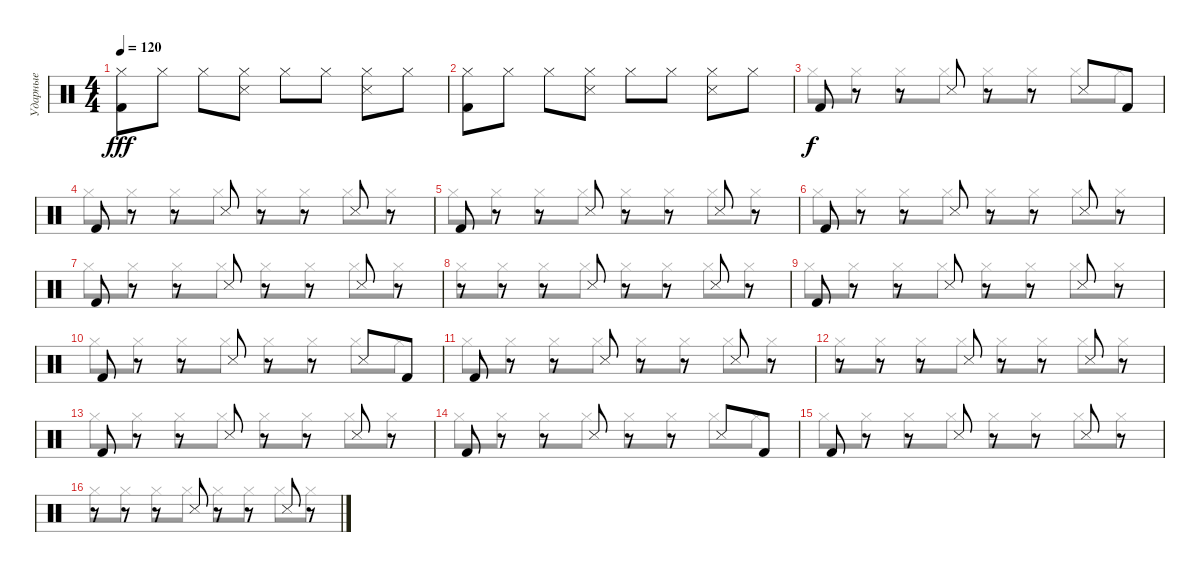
\track ("Ударные" "Ударные") {instrument percussion}
\staff {score}
\articulation defaults
\voice
\ts (4 4)
\tempo 120
\clef neutral
\ks c
("Hi-Hat (closed)" "Kick (hit) 2").8{dy fff} "Hi-Hat (closed)".8 "Hi-Hat (closed)".8 ("Hi-Hat (closed)" "Snare (side stick) 3").8 "Hi-Hat (closed)".8 "Hi-Hat (closed)".8 ("Hi-Hat (closed)" "Snare (side stick) 3").8 "Hi-Hat (closed)".8 |
("Hi-Hat (closed)" "Kick (hit) 2").8 "Hi-Hat (closed)".8 "Hi-Hat (closed)".8 ("Hi-Hat (closed)" "Snare (side stick) 3").8 "Hi-Hat (closed)".8 "Hi-Hat (closed)".8 ("Hi-Hat (closed)" "Snare (side stick) 3").8 "Hi-Hat (closed)".8 |
"Kick (hit) 2".8{dy f} r.8 r.8 "Snare (side stick) 3".8 r.8 r.8 "Snare (side stick) 3".8 "Kick (hit) 2".8 |
"Kick (hit) 2".8 r.8 r.8 "Snare (side stick) 3".8 r.8 r.8 "Snare (side stick) 3".8 r.8 |
"Kick (hit) 2".8 r.8 r.8 "Snare (side stick) 3".8 r.8 r.8 "Snare (side stick) 3".8 r.8 |
"Kick (hit) 2".8 r.8 r.8 "Snare (side stick) 3".8 r.8 r.8 "Snare (side stick) 3".8 r.8 |
"Kick (hit) 2".8 r.8 r.8 "Snare (side stick) 3".8 r.8 r.8 "Snare (side stick) 3".8 r.8 |
r.8 r.8 r.8 "Snare (side stick) 3".8 r.8 r.8 "Snare (side stick) 3".8 r.8 |
"Kick (hit) 2".8 r.8 r.8 "Snare (side stick) 3".8 r.8 r.8 "Snare (side stick) 3".8 r.8 |
"Kick (hit) 2".8 r.8 r.8 "Snare (side stick) 3".8 r.8 r.8 "Snare (side stick) 3".8 "Kick (hit) 2".8 |
"Kick (hit) 2".8 r.8 r.8 "Snare (side stick) 3".8 r.8 r.8 "Snare (side stick) 3".8 r.8 |
r.8 r.8 r.8 "Snare (side stick) 3".8 r.8 r.8 "Snare (side stick) 3".8 r.8 |
"Kick (hit) 2".8 r.8 r.8 "Snare (side stick) 3".8 r.8 r.8 "Snare (side stick) 3".8 r.8 |
"Kick (hit) 2".8 r.8 r.8 "Snare (side stick) 3".8 r.8 r.8 "Snare (side stick) 3".8 "Kick (hit) 2".8 |
"Kick (hit) 2".8 r.8 r.8 "Snare (side stick) 3".8 r.8 r.8 "Snare (side stick) 3".8 r.8 |
r.8 r.8 r.8 "Snare (side stick) 3".8 r.8 r.8 "Snare (side stick) 3".8 r.8
\voice
\clef neutral
\ottava regular
\simile none
\ks c
|
|
"Hi-Hat (closed)".8 "Hi-Hat (closed)".8 "Hi-Hat (closed)".8 "Hi-Hat (closed)".8 "Hi-Hat (closed)".8 "Hi-Hat (closed)".8 "Hi-Hat (closed)".8 "Hi-Hat (closed)".8 |
"Hi-Hat (closed)".8 "Hi-Hat (closed)".8 "Hi-Hat (closed)".8 "Hi-Hat (closed)".8 "Hi-Hat (closed)".8 "Hi-Hat (closed)".8 "Hi-Hat (closed)".8 "Hi-Hat (closed)".8 |
"Hi-Hat (closed)".8 "Hi-Hat (closed)".8 "Hi-Hat (closed)".8 "Hi-Hat (closed)".8 "Hi-Hat (closed)".8 "Hi-Hat (closed)".8 "Hi-Hat (closed)".8 "Hi-Hat (closed)".8 |
"Hi-Hat (closed)".8 "Hi-Hat (closed)".8 "Hi-Hat (closed)".8 "Hi-Hat (closed)".8 "Hi-Hat (closed)".8 "Hi-Hat (closed)".8 "Hi-Hat (closed)".8 "Hi-Hat (closed)".8 |
"Hi-Hat (closed)".8 "Hi-Hat (closed)".8 "Hi-Hat (closed)".8 "Hi-Hat (closed)".8 "Hi-Hat (closed)".8 "Hi-Hat (closed)".8 "Hi-Hat (closed)".8 "Hi-Hat (closed)".8 |
"Hi-Hat (closed)".8 "Hi-Hat (closed)".8 "Hi-Hat (closed)".8 "Hi-Hat (closed)".8 "Hi-Hat (closed)".8 "Hi-Hat (closed)".8 "Hi-Hat (closed)".8 "Hi-Hat (closed)".8 |
"Hi-Hat (closed)".8 "Hi-Hat (closed)".8 "Hi-Hat (closed)".8 "Hi-Hat (closed)".8 "Hi-Hat (closed)".8 "Hi-Hat (closed)".8 "Hi-Hat (closed)".8 "Hi-Hat (closed)".8 |
"Hi-Hat (closed)".8 "Hi-Hat (closed)".8 "Hi-Hat (closed)".8 "Hi-Hat (closed)".8 "Hi-Hat (closed)".8 "Hi-Hat (closed)".8 "Hi-Hat (closed)".8 "Hi-Hat (closed)".8 |
"Hi-Hat (closed)".8 "Hi-Hat (closed)".8 "Hi-Hat (closed)".8 "Hi-Hat (closed)".8 "Hi-Hat (closed)".8 "Hi-Hat (closed)".8 "Hi-Hat (closed)".8 "Hi-Hat (closed)".8 |
"Hi-Hat (closed)".8 "Hi-Hat (closed)".8 "Hi-Hat (closed)".8 "Hi-Hat (closed)".8 "Hi-Hat (closed)".8 "Hi-Hat (closed)".8 "Hi-Hat (closed)".8 "Hi-Hat (closed)".8 |
"Hi-Hat (closed)".8 "Hi-Hat (closed)".8 "Hi-Hat (closed)".8 "Hi-Hat (closed)".8 "Hi-Hat (closed)".8 "Hi-Hat (closed)".8 "Hi-Hat (closed)".8 "Hi-Hat (closed)".8 |
"Hi-Hat (closed)".8 "Hi-Hat (closed)".8 "Hi-Hat (closed)".8 "Hi-Hat (closed)".8 "Hi-Hat (closed)".8 "Hi-Hat (closed)".8 "Hi-Hat (closed)".8 "Hi-Hat (closed)".8 |
"Hi-Hat (closed)".8 "Hi-Hat (closed)".8 "Hi-Hat (closed)".8 "Hi-Hat (closed)".8 "Hi-Hat (closed)".8 "Hi-Hat (closed)".8 "Hi-Hat (closed)".8 "Hi-Hat (closed)".8 |
"Hi-Hat (closed)".8 "Hi-Hat (closed)".8 "Hi-Hat (closed)".8 "Hi-Hat (closed)".8 "Hi-Hat (closed)".8 "Hi-Hat (closed)".8 "Hi-Hat (closed)".8 "Hi-Hat (closed)".8
